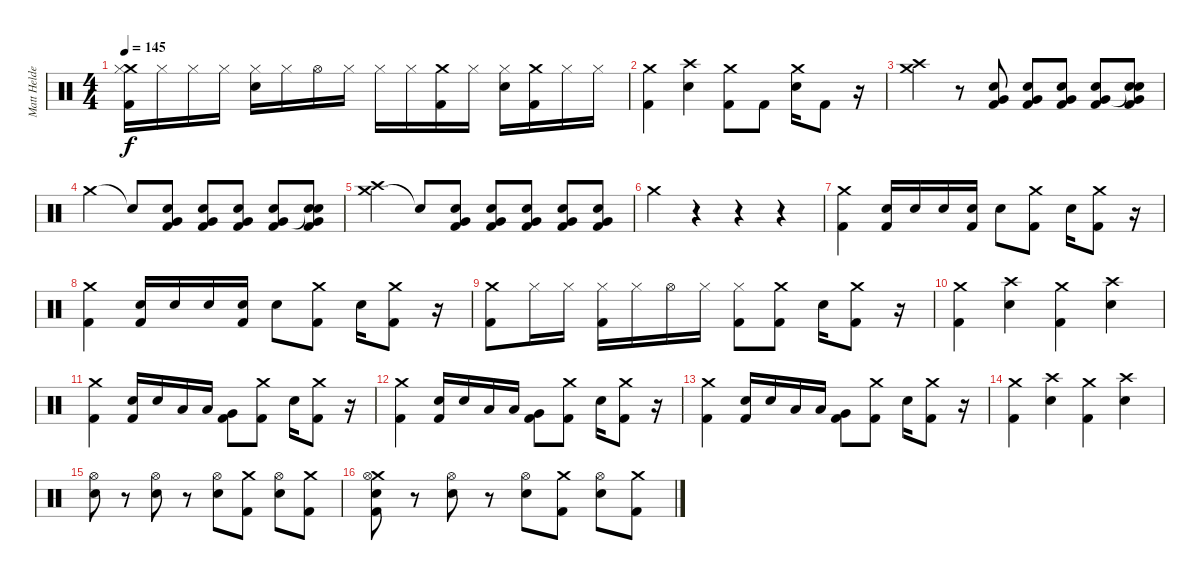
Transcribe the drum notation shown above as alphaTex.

\track ("Matt Helders" "Matt Helde") {instrument percussion}
\staff {score}
\articulation defaults
\ts (4 4)
\tempo 145
\clef neutral
\ks c
("Crash medium (hit)" "Hi-Hat (closed)" "Kick (hit) 2").16{dy f} "Hi-Hat (closed)".16 "Hi-Hat (closed)".16 "Hi-Hat (closed)".16 ("Hi-Hat (closed)" "Snare (hit) 2").16 "Hi-Hat (closed)".16 "Hi-Hat (open)".16 "Hi-Hat (closed)".16 "Hi-Hat (closed)".16 "Hi-Hat (closed)".16 ("Crash medium (hit)" "Kick (hit) 2").16 "Hi-Hat (closed)".16 ("Hi-Hat (closed)" "Snare (hit) 2").16 ("Crash medium (hit)" "Kick (hit) 2").16 "Hi-Hat (closed)".16 "Hi-Hat (closed)".16 |
("Crash medium (hit)" "Kick (hit) 2").4 ("Crash high (hit)" "Snare (hit) 2").4 ("Crash medium (hit)" "Kick (hit) 2").8 "Kick (hit) 2".8 ("Crash medium (hit)" "Snare (hit) 2").16 "Kick (hit) 2".8 r.16 |
("Crash medium (hit)" "Crash high (hit)").4 r.8 ("Very Low Tom (hit)" "Snare (hit) 2" "Kick (hit) 2").8 ("Very Low Tom (hit)" "Snare (hit) 2" "Kick (hit) 2").8 ("Very Low Tom (hit)" "Snare (hit) 2" "Kick (hit) 2").8 ("Very Low Tom (hit)" "Snare (hit) 2" "Kick (hit) 2").8 ("Snare (hit)"{t} "Very Low Tom (hit)" "Snare (hit) 2" "Kick (hit) 2").8 |
"Crash medium (hit)".4 "Snare (hit)"{t}.8 ("Very Low Tom (hit)" "Snare (hit) 2" "Kick (hit) 2").8 ("Very Low Tom (hit)" "Snare (hit) 2" "Kick (hit) 2").8 ("Very Low Tom (hit)" "Snare (hit) 2" "Kick (hit) 2").8 ("Very Low Tom (hit)" "Snare (hit) 2" "Kick (hit) 2").8 ("Snare (hit)"{t} "Very Low Tom (hit)" "Snare (hit) 2" "Kick (hit) 2").8 |
("Crash medium (hit)" "Crash high (hit)").4 "Snare (hit)"{t}.8 ("Very Low Tom (hit)" "Snare (hit) 2" "Kick (hit) 2").8 ("Very Low Tom (hit)" "Snare (hit) 2" "Kick (hit) 2").8 ("Very Low Tom (hit)" "Snare (hit) 2" "Kick (hit) 2").8 ("Very Low Tom (hit)" "Snare (hit) 2" "Kick (hit) 2").8 ("Very Low Tom (hit)" "Snare (hit) 2" "Kick (hit) 2").8 |
"Crash medium (hit)".4 r.4 r.4 r.4 |
("Crash medium (hit)" "Kick (hit) 2").4 ("Snare (hit) 2" "Kick (hit) 2").16 "Snare (hit) 2".16 "Snare (hit) 2".16 ("Snare (hit) 2" "Kick (hit) 2").16 "Snare (hit) 2".8 ("Crash medium (hit)" "Kick (hit) 2").8 "Snare (hit) 2".16 ("Crash medium (hit)" "Kick (hit) 2").8 r.16 |
("Crash medium (hit)" "Kick (hit) 2").4 ("Snare (hit) 2" "Kick (hit) 2").16 "Snare (hit) 2".16 "Snare (hit) 2".16 ("Snare (hit) 2" "Kick (hit) 2").16 "Snare (hit) 2".8 ("Crash medium (hit)" "Kick (hit) 2").8 "Snare (hit) 2".16 ("Crash medium (hit)" "Kick (hit) 2").8 r.16 |
("Crash medium (hit)" "Kick (hit) 2").8 "Hi-Hat (closed)".16 "Hi-Hat (closed)".16 ("Hi-Hat (closed)" "Kick (hit) 2").16 "Hi-Hat (closed)".16 "Hi-Hat (open)".16 "Hi-Hat (closed)".16 ("Hi-Hat (closed)" "Kick (hit) 2").8 ("Crash medium (hit)" "Kick (hit) 2").8 "Snare (hit) 2".16 ("Crash medium (hit)" "Kick (hit) 2").8 r.16 |
("Crash medium (hit)" "Kick (hit) 2").4 ("Crash high (hit)" "Snare (hit) 2").4 ("Crash medium (hit)" "Kick (hit) 2").4 ("Crash high (hit)" "Snare (hit) 2").4 |
("Crash medium (hit)" "Kick (hit) 2").4 ("Snare (hit) 2" "Kick (hit) 2").16 "Snare (hit) 2".16 "Low Tom (hit)".16 "Low Tom (hit)".16 ("Very Low Tom (hit)" "Kick (hit) 2").8 ("Crash medium (hit)" "Kick (hit) 2").8 "Snare (hit) 2".16 ("Crash medium (hit)" "Kick (hit) 2").8 r.16 |
("Crash medium (hit)" "Kick (hit) 2").4 ("Snare (hit) 2" "Kick (hit) 2").16 "Snare (hit) 2".16 "Low Tom (hit)".16 "Low Tom (hit)".16 ("Very Low Tom (hit)" "Kick (hit) 2").8 ("Crash medium (hit)" "Kick (hit) 2").8 "Snare (hit) 2".16 ("Crash medium (hit)" "Kick (hit) 2").8 r.16 |
("Crash medium (hit)" "Kick (hit) 2").4 ("Snare (hit) 2" "Kick (hit) 2").16 "Snare (hit) 2".16 "Low Tom (hit)".16 "Low Tom (hit)".16 ("Very Low Tom (hit)" "Kick (hit) 2").8 ("Crash medium (hit)" "Kick (hit) 2").8 "Snare (hit) 2".16 ("Crash medium (hit)" "Kick (hit) 2").8 r.16 |
("Crash medium (hit)" "Kick (hit) 2").4 ("Crash high (hit)" "Snare (hit) 2").4 ("Crash medium (hit)" "Kick (hit) 2").4 ("Crash high (hit)" "Snare (hit) 2").4 |
("Hi-Hat (open)" "Snare (hit) 2").8 r.8 ("Hi-Hat (open)" "Snare (hit) 2").8 r.8 ("Hi-Hat (open)" "Snare (hit) 2").8 ("Crash medium (hit)" "Kick (hit) 2").8 ("Hi-Hat (open)" "Snare (hit) 2").8 ("Crash medium (hit)" "Kick (hit) 2").8 |
("Crash medium (hit)" "Hi-Hat (open)" "Snare (hit) 2" "Kick (hit) 2").8 r.8 ("Hi-Hat (open)" "Snare (hit) 2").8 r.8 ("Hi-Hat (open)" "Snare (hit) 2").8 ("Crash medium (hit)" "Kick (hit) 2").8 ("Hi-Hat (open)" "Snare (hit) 2").8 ("Crash medium (hit)" "Kick (hit) 2").8
